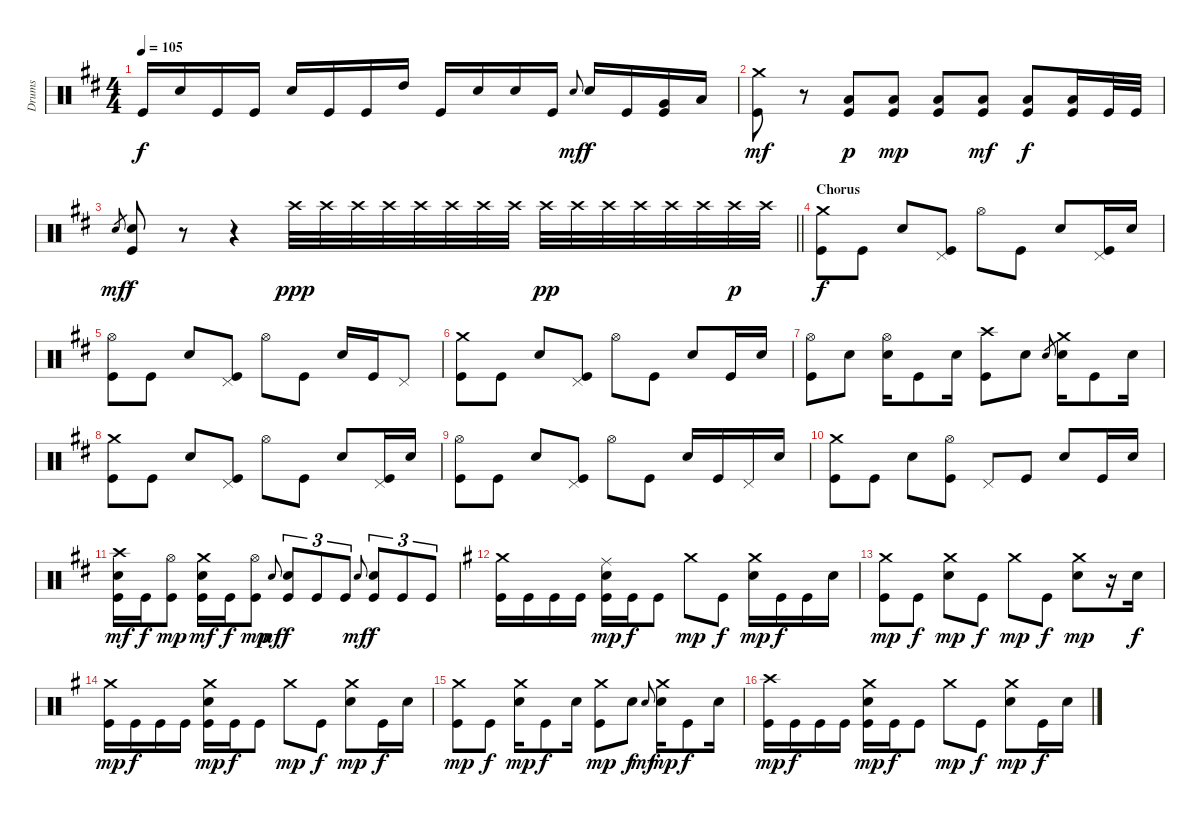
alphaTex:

\track ("Drums" "Drums") {instrument percussion}
\staff {score}
\articulation defaults
\ts (4 4)
\tempo 105
\clef neutral
\ks d "Kick (hit)".16{dy f} "Snare (hit) 2".16 "Kick (hit)".16 "Kick (hit)".16 "Snare (hit) 2".16 "Kick (hit)".16 "Kick (hit)".16 "High Tom (hit)".16 "Kick (hit)".16 "Snare (hit) 2".16 "Snare (hit) 2".16 "Kick (hit)".16 "Snare (hit) 2".8{gr onbeat dy mf} "Snare (hit) 2".16{dy f} "Kick (hit)".16
("Very Low Tom (hit)" "Kick (hit)").16 "Low Floor Tom (hit)".16 |
("Crash medium (hit)" "Kick (hit)").8{dy mf} r.8 ("Low Floor Tom (hit)" "Kick (hit)").8{dy p} ("Low Floor Tom (hit)" "Kick (hit)").8{dy mp} ("Low Floor Tom (hit)" "Kick (hit)").8 ("Low Floor Tom (hit)" "Kick (hit)").8{dy mf} ("Low Floor Tom (hit)" "Kick (hit)").8{dy f} ("Low Floor Tom (hit)" "Kick (hit)").16 "Kick (hit)".32 "Kick (hit)".32 |
\barLineRight lightlight "Snare (hit) 2".8{gr dy mf}
("Snare (hit) 2" "Kick (hit)").8{dy f} r.8 r.4 "Crash high (hit)".32{dy ppp} "Crash high (hit)".32 "Crash high (hit)".32 "Crash high (hit)".32 "Crash high (hit)".32 "Crash high (hit)".32 "Crash high (hit)".32 "Crash high (hit)".32 "Crash high (hit)".32{dy pp} "Crash high (hit)".32 "Crash high (hit)".32 "Crash high (hit)".32 "Crash high (hit)".32 "Crash high (hit)".32 "Crash high (hit)".32{dy p} "Crash high (hit)".32 |
\section ("" "Chorus")
("Crash medium (hit)" "Kick (hit)").8{dy f} "Kick (hit)".8 "Snare (hit) 2".8 ("Pedal Hi-Hat (hit)" "Kick (hit)").8 "Hi-Hat (open)".8 "Kick (hit)".8 "Snare (hit) 2".8 ("Pedal Hi-Hat (hit)" "Kick (hit)").16 "Snare (hit) 2".16 |
("Hi-Hat (open)" "Kick (hit)").8 "Kick (hit)".8 "Snare (hit) 2".8 ("Pedal Hi-Hat (hit)" "Kick (hit)").8 "Hi-Hat (open)".8 "Kick (hit)".8 "Snare (hit) 2".16 "Kick (hit)".16 "Pedal Hi-Hat (hit)".8 |
("Crash medium (hit)" "Kick (hit)").8 "Kick (hit)".8 "Snare (hit) 2".8 ("Pedal Hi-Hat (hit)" "Kick (hit)").8 "Hi-Hat (open)".8 "Kick (hit)".8 "Snare (hit) 2".8 "Kick (hit)".16 "Snare (hit) 2".16 |
("Hi-Hat (open)" "Kick (hit)").8 "Snare (hit) 2".8 ("Hi-Hat (open)" "Snare (hit) 2").16 "Kick (hit)".8 "Snare (hit) 2".16 ("Crash high (hit)" "Kick (hit)").8 "Snare (hit) 2".8 "Snare (hit) 2".8{gr} ("Crash medium (hit)" "Snare (hit) 2").16 "Kick (hit)".8 "Snare (hit) 2".16 |
("Crash medium (hit)" "Kick (hit)").8 "Kick (hit)".8 "Snare (hit) 2".8 ("Pedal Hi-Hat (hit)" "Kick (hit)").8 "Hi-Hat (open)".8 "Kick (hit)".8 "Snare (hit) 2".8 ("Pedal Hi-Hat (hit)" "Kick (hit)").16 "Snare (hit) 2".16 |
("Hi-Hat (open)" "Kick (hit)").8 "Kick (hit)".8 "Snare (hit) 2".8 ("Pedal Hi-Hat (hit)" "Kick (hit)").8 "Hi-Hat (open)".8 "Kick (hit)".8 "Snare (hit) 2".16 "Kick (hit)".16 "Pedal Hi-Hat (hit)".16 "Snare (hit) 2".16 |
("Crash medium (hit)" "Kick (hit)").8 "Kick (hit)".8 "Snare (hit) 2".8 ("Hi-Hat (open)" "Kick (hit)").8 "Pedal Hi-Hat (hit)".8 "Kick (hit)".8 "Snare (hit) 2".8 "Kick (hit)".16 "Snare (hit) 2".16 |
("Crash high (hit)" "Snare (hit) 2" "Kick (hit)").16{dy mf} "Kick (hit)".16{dy f} ("Hi-Hat (open)" "Kick (hit)").8{dy mp} ("Crash medium (hit)" "Snare (hit) 2" "Kick (hit)").16{dy mf} "Kick (hit)".16{dy f} ("Hi-Hat (open)" "Kick (hit)").8{dy mp} "Snare (hit) 2".8{gr onbeat dy mf} ("Snare (hit) 2" "Kick (hit)").8{tu (3 2) dy f} "Kick (hit)".8{tu (3 2)} "Kick (hit)".8{tu (3 2)} "Snare (hit) 2".8{gr onbeat dy mf} ("Snare (hit) 2" "Kick (hit)").8{tu (3 2) dy f} "Kick (hit)".8{tu (3 2)} "Kick (hit)".8{tu (3 2)} |
\ks eminor
("Crash medium (hit)" "Kick (hit)").16 "Kick (hit)".16 "Kick (hit)".16 "Kick (hit)".16 ("Ride (middle)" "Snare (hit) 2" "Kick (hit)").16{dy mp} "Kick (hit)".16{dy f} "Kick (hit)".8 "Crash medium (hit)".8{dy mp} "Kick (hit)".8{dy f} ("Crash medium (hit)" "Snare (hit) 2").16{dy mp} "Kick (hit)".16{dy f} "Kick (hit)".16 "Snare (hit) 2".16 |
("Crash medium (hit)" "Kick (hit)").8{dy mp} "Kick (hit)".8{dy f} ("Crash medium (hit)" "Snare (hit) 2").8{dy mp} "Kick (hit)".8{dy f} "Crash medium (hit)".8{dy mp} "Kick (hit)".8{dy f} ("Crash medium (hit)" "Snare (hit) 2").8{dy mp} r.16 "Snare (hit) 2".16{dy f} |
("Crash medium (hit)" "Kick (hit)").16{dy mp} "Kick (hit)".16{dy f} "Kick (hit)".16 "Kick (hit)".16 ("Crash medium (hit)" "Snare (hit) 2" "Kick (hit)").16{dy mp} "Kick (hit)".16{dy f} "Kick (hit)".8 "Crash medium (hit)".8{dy mp} "Kick (hit)".8{dy f} ("Crash medium (hit)" "Snare (hit) 2").8{dy mp} "Kick (hit)".16{dy f} "Snare (hit) 2".16 |
("Crash medium (hit)" "Kick (hit)").8{dy mp} "Kick (hit)".8{dy f} ("Crash medium (hit)" "Snare (hit) 2").16{dy mp} "Kick (hit)".8{dy f} "Snare (hit) 2".16 ("Crash medium (hit)" "Kick (hit)").8{dy mp} "Snare (hit) 2".8{dy f} "Snare (hit) 2".8{gr onbeat dy mf} ("Crash medium (hit)" "Snare (hit) 2").16{dy mp} "Kick (hit)".8{dy f} "Snare (hit) 2".16 |
("Crash high (hit)" "Kick (hit)").16{dy mp} "Kick (hit)".16{dy f} "Kick (hit)".16 "Kick (hit)".16 ("Crash medium (hit)" "Snare (hit) 2" "Kick (hit)").16{dy mp} "Kick (hit)".16{dy f} "Kick (hit)".8 "Crash medium (hit)".8{dy mp} "Kick (hit)".8{dy f} ("Crash medium (hit)" "Snare (hit) 2").8{dy mp} "Kick (hit)".16{dy f} "Snare (hit) 2".16
